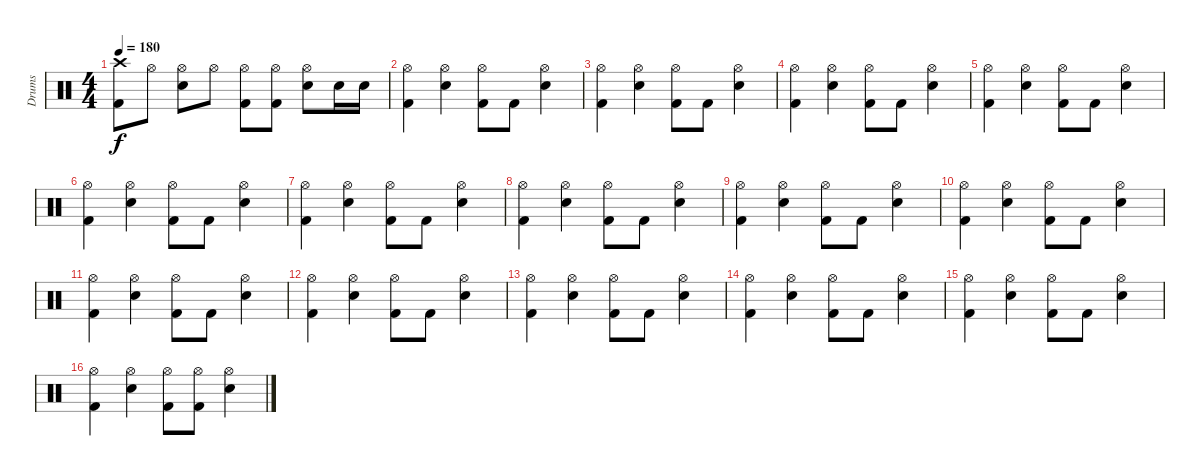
\track ("Drums" "Drums") {instrument percussion}
\staff {score}
\articulation defaults
\ts (4 4)
\tempo 180
\clef neutral
\ks c
("Crash high (hit)" "Kick (hit) 2").8{dy f} "Hi-Hat (open)".8 ("Hi-Hat (open)" "Snare (hit) 2").8 "Hi-Hat (open)".8 ("Hi-Hat (open)" "Kick (hit) 2").8 ("Hi-Hat (open)" "Kick (hit) 2").8 ("Hi-Hat (open)" "Snare (hit) 2").8 "Snare (hit) 2".16 "Snare (hit) 2".16 |
("Hi-Hat (open)" "Kick (hit) 2").4 ("Hi-Hat (open)" "Snare (hit) 2").4 ("Hi-Hat (open)" "Kick (hit) 2").8 "Kick (hit) 2".8 ("Hi-Hat (open)" "Snare (hit) 2").4 |
("Hi-Hat (open)" "Kick (hit) 2").4 ("Hi-Hat (open)" "Snare (hit) 2").4 ("Hi-Hat (open)" "Kick (hit) 2").8 "Kick (hit) 2".8 ("Hi-Hat (open)" "Snare (hit) 2").4 |
("Hi-Hat (open)" "Kick (hit) 2").4 ("Hi-Hat (open)" "Snare (hit) 2").4 ("Hi-Hat (open)" "Kick (hit) 2").8 "Kick (hit) 2".8 ("Hi-Hat (open)" "Snare (hit) 2").4 |
("Hi-Hat (open)" "Kick (hit) 2").4 ("Hi-Hat (open)" "Snare (hit) 2").4 ("Hi-Hat (open)" "Kick (hit) 2").8 "Kick (hit) 2".8 ("Hi-Hat (open)" "Snare (hit) 2").4 |
("Hi-Hat (open)" "Kick (hit) 2").4 ("Hi-Hat (open)" "Snare (hit) 2").4 ("Hi-Hat (open)" "Kick (hit) 2").8 "Kick (hit) 2".8 ("Hi-Hat (open)" "Snare (hit) 2").4 |
("Hi-Hat (open)" "Kick (hit) 2").4 ("Hi-Hat (open)" "Snare (hit) 2").4 ("Hi-Hat (open)" "Kick (hit) 2").8 "Kick (hit) 2".8 ("Hi-Hat (open)" "Snare (hit) 2").4 |
("Hi-Hat (open)" "Kick (hit) 2").4 ("Hi-Hat (open)" "Snare (hit) 2").4 ("Hi-Hat (open)" "Kick (hit) 2").8 "Kick (hit) 2".8 ("Hi-Hat (open)" "Snare (hit) 2").4 |
("Hi-Hat (open)" "Kick (hit) 2").4 ("Hi-Hat (open)" "Snare (hit) 2").4 ("Hi-Hat (open)" "Kick (hit) 2").8 "Kick (hit) 2".8 ("Hi-Hat (open)" "Snare (hit) 2").4 |
("Hi-Hat (open)" "Kick (hit) 2").4 ("Hi-Hat (open)" "Snare (hit) 2").4 ("Hi-Hat (open)" "Kick (hit) 2").8 "Kick (hit) 2".8 ("Hi-Hat (open)" "Snare (hit) 2").4 |
("Hi-Hat (open)" "Kick (hit) 2").4 ("Hi-Hat (open)" "Snare (hit) 2").4 ("Hi-Hat (open)" "Kick (hit) 2").8 "Kick (hit) 2".8 ("Hi-Hat (open)" "Snare (hit) 2").4 |
("Hi-Hat (open)" "Kick (hit) 2").4 ("Hi-Hat (open)" "Snare (hit) 2").4 ("Hi-Hat (open)" "Kick (hit) 2").8 "Kick (hit) 2".8 ("Hi-Hat (open)" "Snare (hit) 2").4 |
("Hi-Hat (open)" "Kick (hit) 2").4 ("Hi-Hat (open)" "Snare (hit) 2").4 ("Hi-Hat (open)" "Kick (hit) 2").8 "Kick (hit) 2".8 ("Hi-Hat (open)" "Snare (hit) 2").4 |
("Hi-Hat (open)" "Kick (hit) 2").4 ("Hi-Hat (open)" "Snare (hit) 2").4 ("Hi-Hat (open)" "Kick (hit) 2").8 "Kick (hit) 2".8 ("Hi-Hat (open)" "Snare (hit) 2").4 |
("Hi-Hat (open)" "Kick (hit) 2").4 ("Hi-Hat (open)" "Snare (hit) 2").4 ("Hi-Hat (open)" "Kick (hit) 2").8 "Kick (hit) 2".8 ("Hi-Hat (open)" "Snare (hit) 2").4 |
("Hi-Hat (open)" "Kick (hit) 2").4 ("Hi-Hat (open)" "Snare (hit) 2").4 ("Hi-Hat (open)" "Kick (hit) 2").8 ("Hi-Hat (open)" "Kick (hit) 2").8 ("Hi-Hat (open)" "Snare (hit) 2").4
